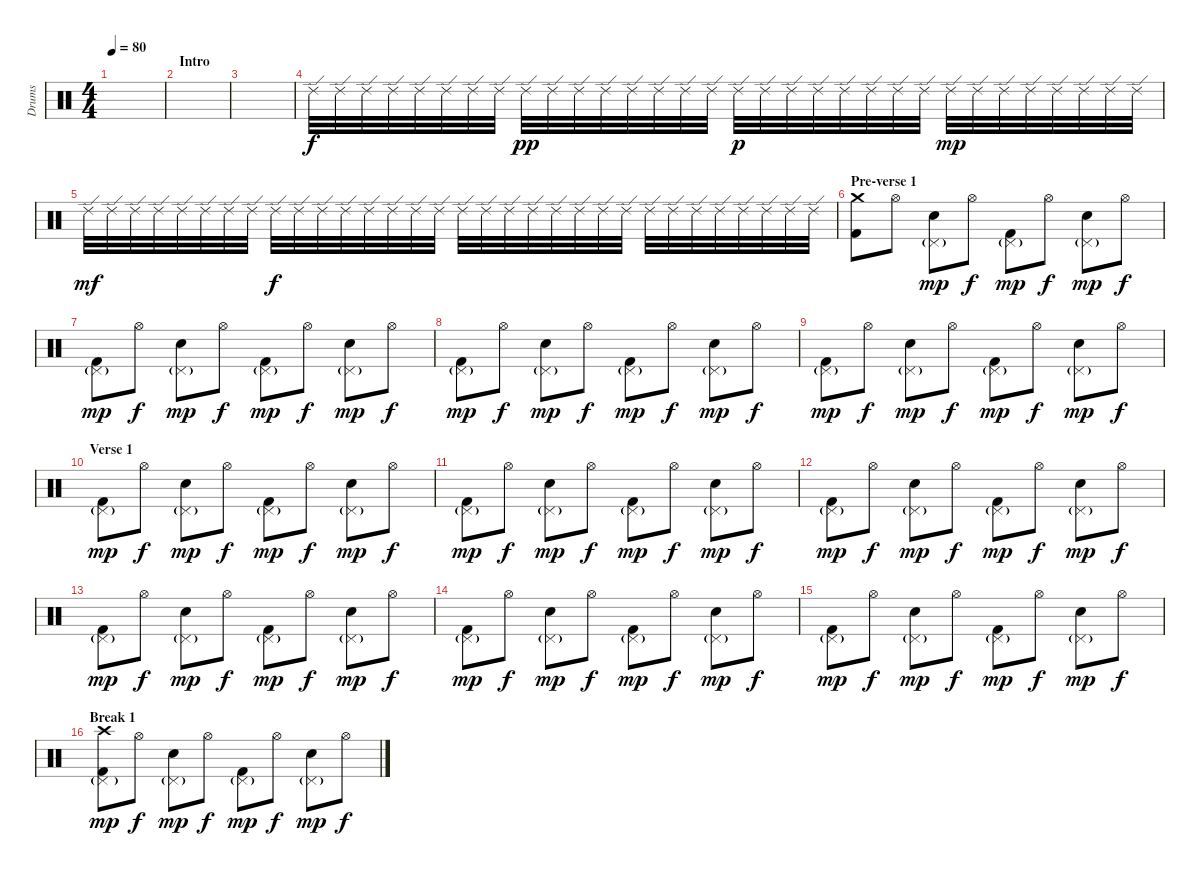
\track ("Drums" "Drums") {instrument percussion}
\staff {score}
\articulation defaults
\ts (4 4)
\tempo 80
\clef neutral
\ks c
|
\section ("" "Intro")
|
|
"Ride (edge) 2".32 "Ride (edge) 2".32 "Ride (edge) 2".32 "Ride (edge) 2".32 "Ride (edge) 2".32 "Ride (edge) 2".32 "Ride (edge) 2".32 "Ride (edge) 2".32 "Ride (edge) 2".32{dy pp} "Ride (edge) 2".32 "Ride (edge) 2".32 "Ride (edge) 2".32 "Ride (edge) 2".32 "Ride (edge) 2".32 "Ride (edge) 2".32 "Ride (edge) 2".32 "Ride (edge) 2".32{dy p} "Ride (edge) 2".32 "Ride (edge) 2".32 "Ride (edge) 2".32 "Ride (edge) 2".32 "Ride (edge) 2".32 "Ride (edge) 2".32 "Ride (edge) 2".32 "Ride (edge) 2".32{dy mp} "Ride (edge) 2".32 "Ride (edge) 2".32 "Ride (edge) 2".32 "Ride (edge) 2".32 "Ride (edge) 2".32 "Ride (edge) 2".32 "Ride (edge) 2".32 |
"Ride (edge) 2".32{dy mf} "Ride (edge) 2".32 "Ride (edge) 2".32 "Ride (edge) 2".32 "Ride (edge) 2".32 "Ride (edge) 2".32 "Ride (edge) 2".32 "Ride (edge) 2".32 "Ride (edge) 2".32{dy f} "Ride (edge) 2".32 "Ride (edge) 2".32 "Ride (edge) 2".32 "Ride (edge) 2".32 "Ride (edge) 2".32 "Ride (edge) 2".32 "Ride (edge) 2".32 "Ride (edge) 2".32 "Ride (edge) 2".32 "Ride (edge) 2".32 "Ride (edge) 2".32 "Ride (edge) 2".32 "Ride (edge) 2".32 "Ride (edge) 2".32 "Ride (edge) 2".32 "Ride (edge) 2".32 "Ride (edge) 2".32 "Ride (edge) 2".32 "Ride (edge) 2".32 "Ride (edge) 2".32 "Ride (edge) 2".32 "Ride (edge) 2".32 "Ride (edge) 2".32 |
\section ("" "Pre-verse 1")
("Crash medium (hit)" "Kick (hit) 2").8 "Hi-Hat (open)".8 ("Pedal Hi-Hat (hit)"{g} "Electric Snare (hit)").8{dy mp} "Hi-Hat (open)".8{dy f} ("Pedal Hi-Hat (hit)"{g} "Kick (hit) 2").8{dy mp} "Hi-Hat (open)".8{dy f} ("Pedal Hi-Hat (hit)"{g} "Electric Snare (hit)").8{dy mp} "Hi-Hat (open)".8{dy f} |
("Pedal Hi-Hat (hit)"{g} "Kick (hit) 2").8{dy mp} "Hi-Hat (open)".8{dy f} ("Pedal Hi-Hat (hit)"{g} "Electric Snare (hit)").8{dy mp} "Hi-Hat (open)".8{dy f} ("Pedal Hi-Hat (hit)"{g} "Kick (hit) 2").8{dy mp} "Hi-Hat (open)".8{dy f} ("Pedal Hi-Hat (hit)"{g} "Electric Snare (hit)").8{dy mp} "Hi-Hat (open)".8{dy f} |
("Pedal Hi-Hat (hit)"{g} "Kick (hit) 2").8{dy mp} "Hi-Hat (open)".8{dy f} ("Pedal Hi-Hat (hit)"{g} "Electric Snare (hit)").8{dy mp} "Hi-Hat (open)".8{dy f} ("Pedal Hi-Hat (hit)"{g} "Kick (hit) 2").8{dy mp} "Hi-Hat (open)".8{dy f} ("Pedal Hi-Hat (hit)"{g} "Electric Snare (hit)").8{dy mp} "Hi-Hat (open)".8{dy f} |
("Pedal Hi-Hat (hit)"{g} "Kick (hit) 2").8{dy mp} "Hi-Hat (open)".8{dy f} ("Pedal Hi-Hat (hit)"{g} "Electric Snare (hit)").8{dy mp} "Hi-Hat (open)".8{dy f} ("Pedal Hi-Hat (hit)"{g} "Kick (hit) 2").8{dy mp} "Hi-Hat (open)".8{dy f} ("Pedal Hi-Hat (hit)"{g} "Electric Snare (hit)").8{dy mp} "Hi-Hat (open)".8{dy f} |
\section ("" "Verse 1")
("Pedal Hi-Hat (hit)"{g} "Kick (hit) 2").8{dy mp} "Hi-Hat (open)".8{dy f} ("Pedal Hi-Hat (hit)"{g} "Electric Snare (hit)").8{dy mp} "Hi-Hat (open)".8{dy f} ("Pedal Hi-Hat (hit)"{g} "Kick (hit) 2").8{dy mp} "Hi-Hat (open)".8{dy f} ("Pedal Hi-Hat (hit)"{g} "Electric Snare (hit)").8{dy mp} "Hi-Hat (open)".8{dy f} |
("Pedal Hi-Hat (hit)"{g} "Kick (hit) 2").8{dy mp} "Hi-Hat (open)".8{dy f} ("Pedal Hi-Hat (hit)"{g} "Electric Snare (hit)").8{dy mp} "Hi-Hat (open)".8{dy f} ("Pedal Hi-Hat (hit)"{g} "Kick (hit) 2").8{dy mp} "Hi-Hat (open)".8{dy f} ("Pedal Hi-Hat (hit)"{g} "Electric Snare (hit)").8{dy mp} "Hi-Hat (open)".8{dy f} |
("Pedal Hi-Hat (hit)"{g} "Kick (hit) 2").8{dy mp} "Hi-Hat (open)".8{dy f} ("Pedal Hi-Hat (hit)"{g} "Electric Snare (hit)").8{dy mp} "Hi-Hat (open)".8{dy f} ("Pedal Hi-Hat (hit)"{g} "Kick (hit) 2").8{dy mp} "Hi-Hat (open)".8{dy f} ("Pedal Hi-Hat (hit)"{g} "Electric Snare (hit)").8{dy mp} "Hi-Hat (open)".8{dy f} |
("Pedal Hi-Hat (hit)"{g} "Kick (hit) 2").8{dy mp} "Hi-Hat (open)".8{dy f} ("Pedal Hi-Hat (hit)"{g} "Electric Snare (hit)").8{dy mp} "Hi-Hat (open)".8{dy f} ("Pedal Hi-Hat (hit)"{g} "Kick (hit) 2").8{dy mp} "Hi-Hat (open)".8{dy f} ("Pedal Hi-Hat (hit)"{g} "Electric Snare (hit)").8{dy mp} "Hi-Hat (open)".8{dy f} |
("Pedal Hi-Hat (hit)"{g} "Kick (hit) 2").8{dy mp} "Hi-Hat (open)".8{dy f} ("Pedal Hi-Hat (hit)"{g} "Electric Snare (hit)").8{dy mp} "Hi-Hat (open)".8{dy f} ("Pedal Hi-Hat (hit)"{g} "Kick (hit) 2").8{dy mp} "Hi-Hat (open)".8{dy f} ("Pedal Hi-Hat (hit)"{g} "Electric Snare (hit)").8{dy mp} "Hi-Hat (open)".8{dy f} |
("Pedal Hi-Hat (hit)"{g} "Kick (hit) 2").8{dy mp} "Hi-Hat (open)".8{dy f} ("Pedal Hi-Hat (hit)"{g} "Electric Snare (hit)").8{dy mp} "Hi-Hat (open)".8{dy f} ("Pedal Hi-Hat (hit)"{g} "Kick (hit) 2").8{dy mp} "Hi-Hat (open)".8{dy f} ("Pedal Hi-Hat (hit)"{g} "Electric Snare (hit)").8{dy mp} "Hi-Hat (open)".8{dy f} |
\section ("" "Break 1")
("Pedal Hi-Hat (hit)"{g} "Crash high (hit)" "Kick (hit) 2").8{dy mp} "Hi-Hat (open)".8{dy f} ("Pedal Hi-Hat (hit)"{g} "Electric Snare (hit)").8{dy mp} "Hi-Hat (open)".8{dy f} ("Pedal Hi-Hat (hit)"{g} "Kick (hit) 2").8{dy mp} "Hi-Hat (open)".8{dy f} ("Pedal Hi-Hat (hit)"{g} "Electric Snare (hit)").8{dy mp} "Hi-Hat (open)".8{dy f}
